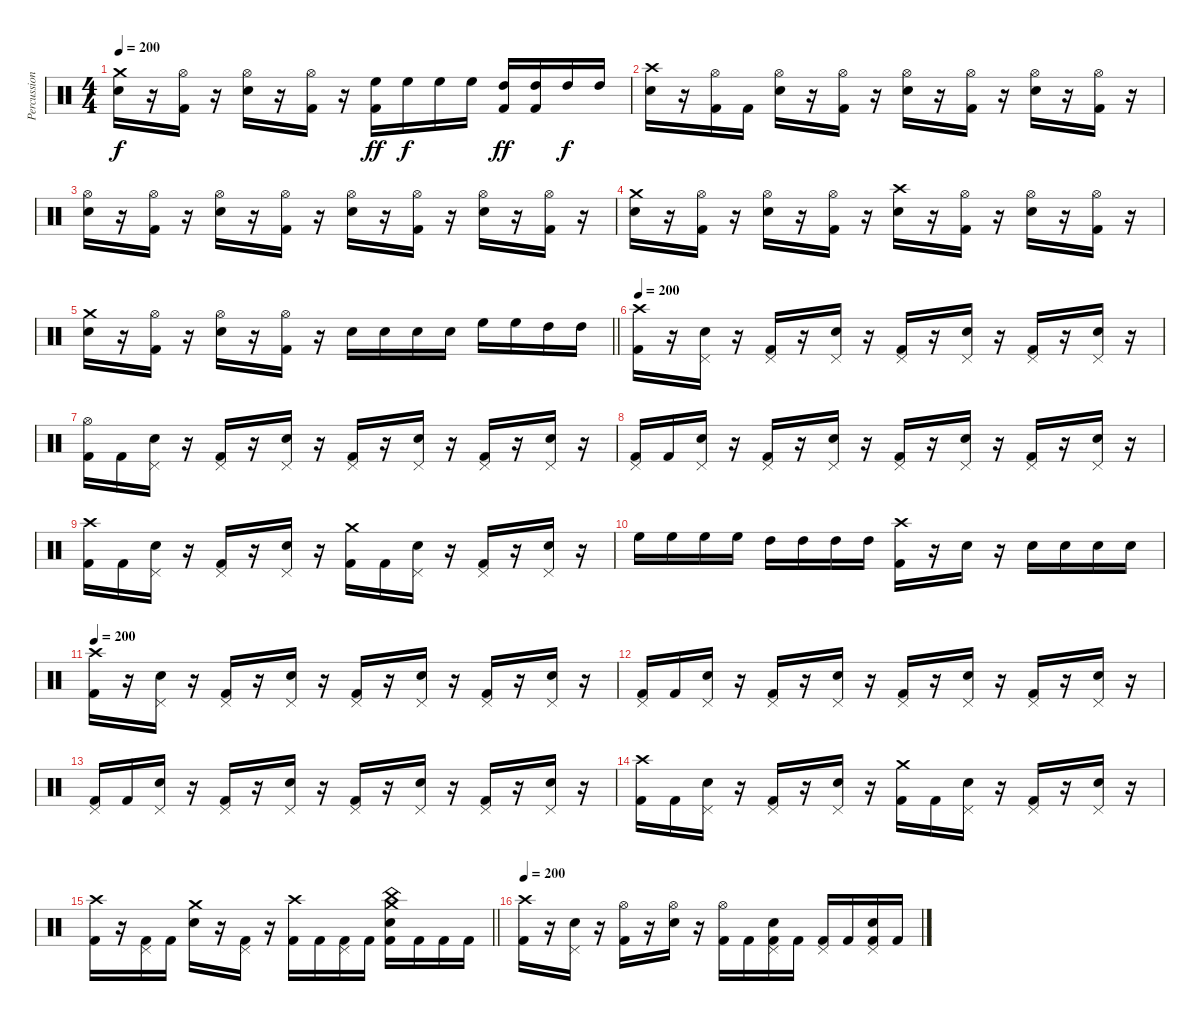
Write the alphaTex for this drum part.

\track ("Percussion" "Percussion") {instrument percussion}
\staff {score}
\articulation defaults
\ts (4 4)
\tempo 200
\clef neutral
\ks c
("Crash medium (hit)" "Snare (hit) 2").16{dy f} r.16 ("Hi-Hat (open)" "Kick (hit) 2").16 r.16 ("Hi-Hat (open)" "Snare (hit) 2").16 r.16 ("Hi-Hat (open)" "Kick (hit) 2").16 r.16 ("High Floor Tom (hit)" "Kick (hit) 2").16{dy ff} "High Floor Tom (hit)".16{dy f} "High Floor Tom (hit)".16 "High Floor Tom (hit)".16 ("High Tom (hit)" "Kick (hit) 2").16{dy ff} ("High Tom (hit)" "Kick (hit) 2").16 "High Tom (hit)".16{dy f} "High Tom (hit)".16 |
("Crash high (hit)" "Snare (hit) 2").16 r.16 ("Hi-Hat (open)" "Kick (hit) 2").16 "Kick (hit) 2".16 ("Hi-Hat (open)" "Snare (hit) 2").16 r.16 ("Hi-Hat (open)" "Kick (hit) 2").16 r.16 ("Hi-Hat (open)" "Snare (hit) 2").16 r.16 ("Hi-Hat (open)" "Kick (hit) 2").16 r.16 ("Hi-Hat (open)" "Snare (hit) 2").16 r.16 ("Hi-Hat (open)" "Kick (hit) 2").16 r.16 |
("Hi-Hat (open)" "Snare (hit) 2").16 r.16 ("Hi-Hat (open)" "Kick (hit) 2").16 r.16 ("Hi-Hat (open)" "Snare (hit) 2").16 r.16 ("Hi-Hat (open)" "Kick (hit) 2").16 r.16 ("Hi-Hat (open)" "Snare (hit) 2").16 r.16 ("Hi-Hat (open)" "Kick (hit) 2").16 r.16 ("Hi-Hat (open)" "Snare (hit) 2").16 r.16 ("Hi-Hat (open)" "Kick (hit) 2").16 r.16 |
("Crash medium (hit)" "Snare (hit) 2").16 r.16 ("Hi-Hat (open)" "Kick (hit) 2").16 r.16 ("Hi-Hat (open)" "Snare (hit) 2").16 r.16 ("Hi-Hat (open)" "Kick (hit) 2").16 r.16 ("Crash high (hit)" "Snare (hit) 2").16 r.16 ("Hi-Hat (open)" "Kick (hit) 2").16 r.16 ("Hi-Hat (open)" "Snare (hit) 2").16 r.16 ("Hi-Hat (open)" "Kick (hit) 2").16 r.16 |
\barLineRight lightlight
("Crash medium (hit)" "Snare (hit) 2").16 r.16 ("Hi-Hat (open)" "Kick (hit) 2").16 r.16 ("Hi-Hat (open)" "Snare (hit) 2").16 r.16 ("Hi-Hat (open)" "Kick (hit) 2").16 r.16 "Snare (hit) 2".16 "Snare (hit) 2".16 "Snare (hit) 2".16 "Snare (hit) 2".16 "High Floor Tom (hit)".16 "High Floor Tom (hit)".16 "High Tom (hit)".16 "High Tom (hit)".16 |
\section ("" "")
\tempo 200
("Crash high (hit)" "Kick (hit) 2").16 r.16 ("Pedal Hi-Hat (hit)" "Snare (hit) 2").16 r.16 ("Pedal Hi-Hat (hit)" "Kick (hit) 2").16 r.16 ("Pedal Hi-Hat (hit)" "Snare (hit) 2").16 r.16 ("Pedal Hi-Hat (hit)" "Kick (hit) 2").16 r.16 ("Pedal Hi-Hat (hit)" "Snare (hit) 2").16 r.16 ("Pedal Hi-Hat (hit)" "Kick (hit) 2").16 r.16 ("Pedal Hi-Hat (hit)" "Snare (hit) 2").16 r.16 |
("Hi-Hat (open)" "Kick (hit) 2").16 "Kick (hit) 2".16 ("Pedal Hi-Hat (hit)" "Snare (hit) 2").16 r.16 ("Pedal Hi-Hat (hit)" "Kick (hit) 2").16 r.16 ("Pedal Hi-Hat (hit)" "Snare (hit) 2").16 r.16 ("Pedal Hi-Hat (hit)" "Kick (hit) 2").16 r.16 ("Pedal Hi-Hat (hit)" "Snare (hit) 2").16 r.16 ("Pedal Hi-Hat (hit)" "Kick (hit) 2").16 r.16 ("Pedal Hi-Hat (hit)" "Snare (hit) 2").16 r.16 |
("Pedal Hi-Hat (hit)" "Kick (hit) 2").16 "Kick (hit) 2".16 ("Pedal Hi-Hat (hit)" "Snare (hit) 2").16 r.16 ("Pedal Hi-Hat (hit)" "Kick (hit) 2").16 r.16 ("Pedal Hi-Hat (hit)" "Snare (hit) 2").16 r.16 ("Pedal Hi-Hat (hit)" "Kick (hit) 2").16 r.16 ("Pedal Hi-Hat (hit)" "Snare (hit) 2").16 r.16 ("Pedal Hi-Hat (hit)" "Kick (hit) 2").16 r.16 ("Pedal Hi-Hat (hit)" "Snare (hit) 2").16 r.16 |
("Crash high (hit)" "Kick (hit) 2").16 "Kick (hit) 2".16 ("Pedal Hi-Hat (hit)" "Snare (hit) 2").16 r.16 ("Pedal Hi-Hat (hit)" "Kick (hit) 2").16 r.16 ("Pedal Hi-Hat (hit)" "Snare (hit) 2").16 r.16 ("Crash medium (hit)" "Kick (hit) 2").16 "Kick (hit) 2".16 ("Pedal Hi-Hat (hit)" "Snare (hit) 2").16 r.16 ("Pedal Hi-Hat (hit)" "Kick (hit) 2").16 r.16 ("Pedal Hi-Hat (hit)" "Snare (hit) 2").16 r.16 |
"High Floor Tom (hit)".16 "High Floor Tom (hit)".16 "High Floor Tom (hit)".16 "High Floor Tom (hit)".16 "High Tom (hit)".16 "High Tom (hit)".16 "High Tom (hit)".16 "High Tom (hit)".16 ("Crash high (hit)" "Kick (hit) 2").16 r.16 "Snare (hit) 2".16 r.16 "Snare (hit) 2".16 "Snare (hit) 2".16 "Snare (hit) 2".16 "Snare (hit) 2".16 |
\tempo 200
("Crash high (hit)" "Kick (hit) 2").16 r.16 ("Pedal Hi-Hat (hit)" "Snare (hit) 2").16 r.16 ("Pedal Hi-Hat (hit)" "Kick (hit) 2").16 r.16 ("Pedal Hi-Hat (hit)" "Snare (hit) 2").16 r.16 ("Pedal Hi-Hat (hit)" "Kick (hit) 2").16 r.16 ("Pedal Hi-Hat (hit)" "Snare (hit) 2").16 r.16 ("Pedal Hi-Hat (hit)" "Kick (hit) 2").16 r.16 ("Pedal Hi-Hat (hit)" "Snare (hit) 2").16 r.16 |
("Pedal Hi-Hat (hit)" "Kick (hit) 2").16 "Kick (hit) 2".16 ("Pedal Hi-Hat (hit)" "Snare (hit) 2").16 r.16 ("Pedal Hi-Hat (hit)" "Kick (hit) 2").16 r.16 ("Pedal Hi-Hat (hit)" "Snare (hit) 2").16 r.16 ("Pedal Hi-Hat (hit)" "Kick (hit) 2").16 r.16 ("Pedal Hi-Hat (hit)" "Snare (hit) 2").16 r.16 ("Pedal Hi-Hat (hit)" "Kick (hit) 2").16 r.16 ("Pedal Hi-Hat (hit)" "Snare (hit) 2").16 r.16 |
("Pedal Hi-Hat (hit)" "Kick (hit) 2").16 "Kick (hit) 2".16 ("Pedal Hi-Hat (hit)" "Snare (hit) 2").16 r.16 ("Pedal Hi-Hat (hit)" "Kick (hit) 2").16 r.16 ("Pedal Hi-Hat (hit)" "Snare (hit) 2").16 r.16 ("Pedal Hi-Hat (hit)" "Kick (hit) 2").16 r.16 ("Pedal Hi-Hat (hit)" "Snare (hit) 2").16 r.16 ("Pedal Hi-Hat (hit)" "Kick (hit) 2").16 r.16 ("Pedal Hi-Hat (hit)" "Snare (hit) 2").16 r.16 |
("Crash high (hit)" "Kick (hit) 2").16 "Kick (hit) 2".16 ("Pedal Hi-Hat (hit)" "Snare (hit) 2").16 r.16 ("Pedal Hi-Hat (hit)" "Kick (hit) 2").16 r.16 ("Pedal Hi-Hat (hit)" "Snare (hit) 2").16 r.16 ("Crash medium (hit)" "Kick (hit) 2").16 "Kick (hit) 2".16 ("Pedal Hi-Hat (hit)" "Snare (hit) 2").16 r.16 ("Pedal Hi-Hat (hit)" "Kick (hit) 2").16 r.16 ("Pedal Hi-Hat (hit)" "Snare (hit) 2").16 r.16 |
\barLineRight lightlight
("Crash high (hit)" "Kick (hit) 2").16 r.16 ("Pedal Hi-Hat (hit)" "Kick (hit) 2").16 "Kick (hit) 2".16 ("Crash medium (hit)" "Snare (hit) 2").16 r.16 ("Pedal Hi-Hat (hit)" "Kick (hit) 2").16 r.16 ("Crash high (hit)" "Kick (hit) 2").16 "Kick (hit) 2".16 ("Pedal Hi-Hat (hit)" "Kick (hit) 2").16 "Kick (hit) 2".16 ("Crash medium (hit)" "China (hit)" "Snare (hit) 2" "Kick (hit) 2").16 "Kick (hit) 2".16 "Kick (hit) 2".16 "Kick (hit) 2".16 |
\section ("" "")
\tempo 200
("Crash high (hit)" "Kick (hit) 2").16 r.16 ("Pedal Hi-Hat (hit)" "Snare (hit) 2").16 r.16 ("Hi-Hat (open)" "Kick (hit) 2").16 r.16 ("Hi-Hat (open)" "Snare (hit) 2").16 r.16 ("Hi-Hat (open)" "Kick (hit) 2").16 "Kick (hit) 2".16 ("Pedal Hi-Hat (hit)" "Snare (hit) 2" "Kick (hit) 2").16 "Kick (hit) 2".16 ("Pedal Hi-Hat (hit)" "Kick (hit) 2").16 "Kick (hit) 2".16 ("Pedal Hi-Hat (hit)" "Snare (hit) 2" "Kick (hit) 2").16 "Kick (hit) 2".16
